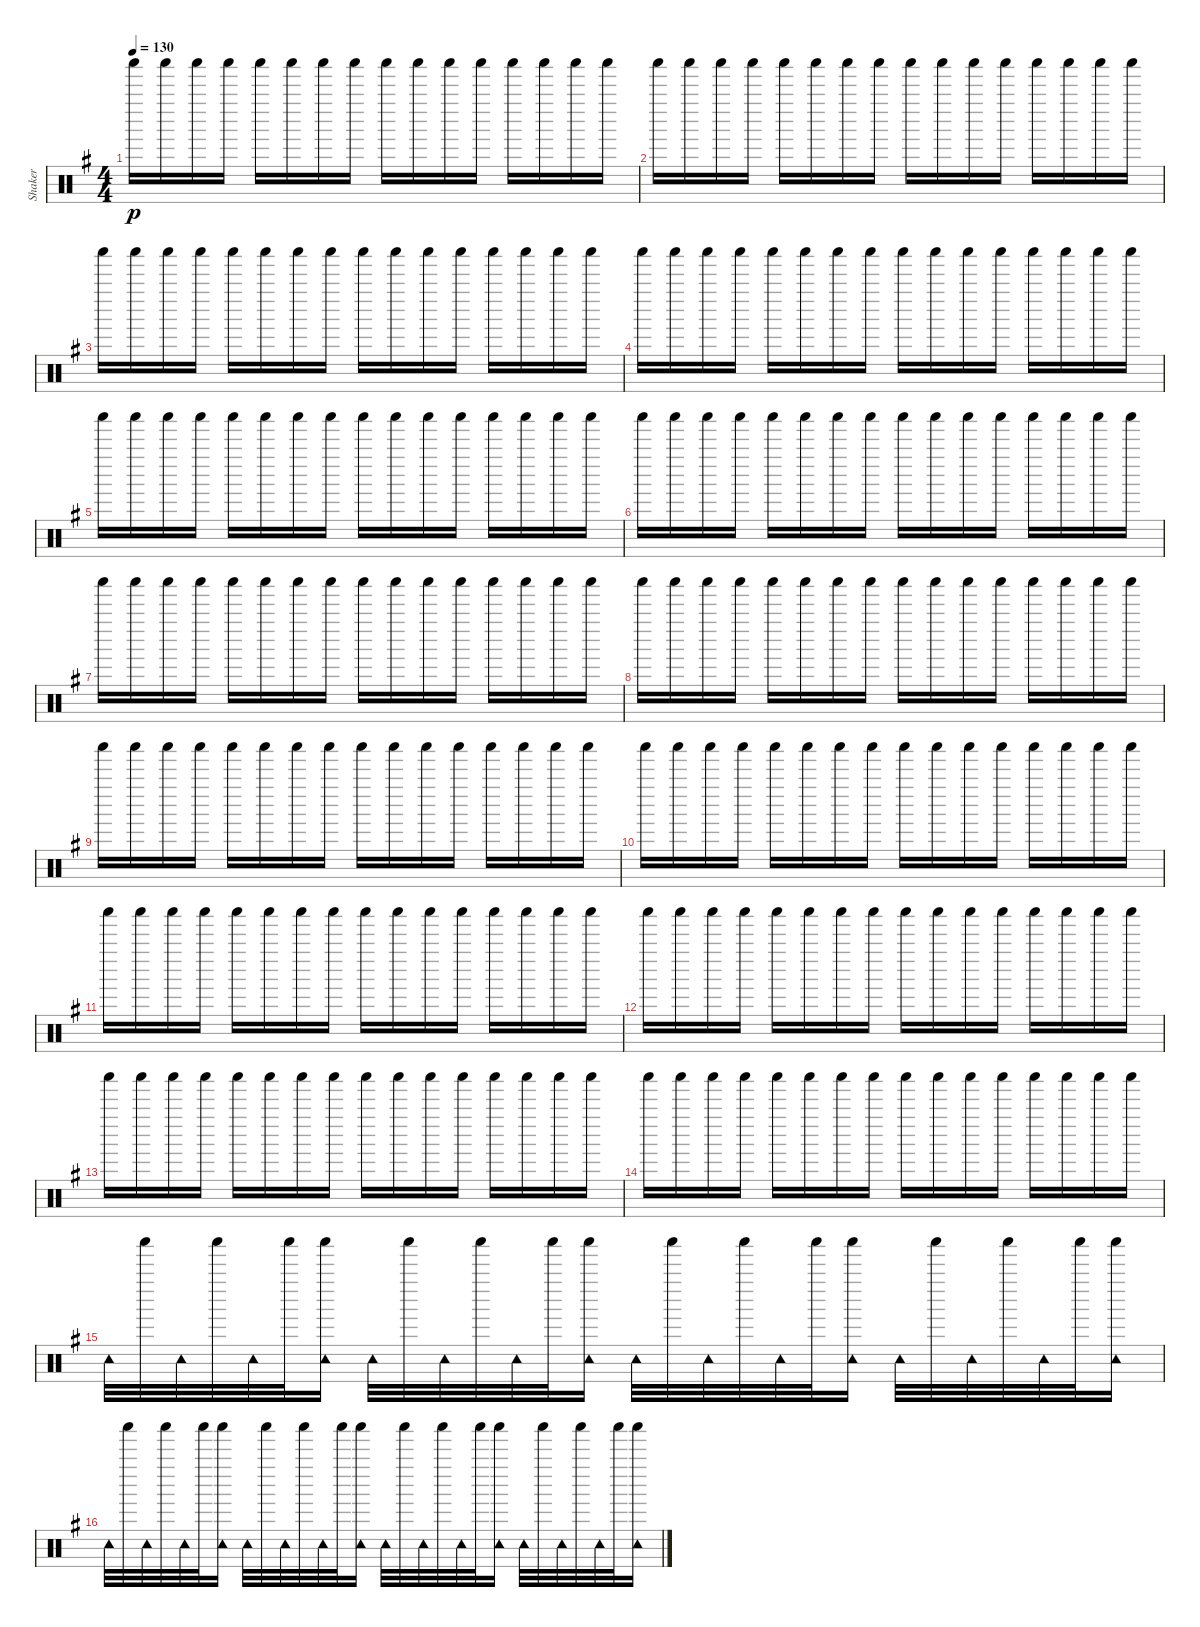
\track ("Shaker" "Shaker") {instrument percussion}
\staff {score}
\articulation defaults
\ts (4 4)
\tempo 130
\clef neutral
\ks g "Shaker (hit)".16{dy p} "Shaker (hit)".16 "Shaker (hit)".16 "Shaker (hit)".16 "Shaker (hit)".16 "Shaker (hit)".16 "Shaker (hit)".16 "Shaker (hit)".16 "Shaker (hit)".16 "Shaker (hit)".16 "Shaker (hit)".16 "Shaker (hit)".16 "Shaker (hit)".16 "Shaker (hit)".16 "Shaker (hit)".16 "Shaker (hit)".16
|
"Shaker (hit)".16 "Shaker (hit)".16 "Shaker (hit)".16 "Shaker (hit)".16 "Shaker (hit)".16 "Shaker (hit)".16 "Shaker (hit)".16 "Shaker (hit)".16 "Shaker (hit)".16 "Shaker (hit)".16 "Shaker (hit)".16 "Shaker (hit)".16 "Shaker (hit)".16 "Shaker (hit)".16 "Shaker (hit)".16 "Shaker (hit)".16 |
"Shaker (hit)".16 "Shaker (hit)".16 "Shaker (hit)".16 "Shaker (hit)".16 "Shaker (hit)".16 "Shaker (hit)".16 "Shaker (hit)".16 "Shaker (hit)".16 "Shaker (hit)".16 "Shaker (hit)".16 "Shaker (hit)".16 "Shaker (hit)".16 "Shaker (hit)".16 "Shaker (hit)".16 "Shaker (hit)".16 "Shaker (hit)".16 |
"Shaker (hit)".16 "Shaker (hit)".16 "Shaker (hit)".16 "Shaker (hit)".16 "Shaker (hit)".16 "Shaker (hit)".16 "Shaker (hit)".16 "Shaker (hit)".16 "Shaker (hit)".16 "Shaker (hit)".16 "Shaker (hit)".16 "Shaker (hit)".16 "Shaker (hit)".16 "Shaker (hit)".16 "Shaker (hit)".16 "Shaker (hit)".16 |
"Shaker (hit)".16 "Shaker (hit)".16 "Shaker (hit)".16 "Shaker (hit)".16 "Shaker (hit)".16 "Shaker (hit)".16 "Shaker (hit)".16 "Shaker (hit)".16 "Shaker (hit)".16 "Shaker (hit)".16 "Shaker (hit)".16 "Shaker (hit)".16 "Shaker (hit)".16 "Shaker (hit)".16 "Shaker (hit)".16 "Shaker (hit)".16 |
"Shaker (hit)".16 "Shaker (hit)".16 "Shaker (hit)".16 "Shaker (hit)".16 "Shaker (hit)".16 "Shaker (hit)".16 "Shaker (hit)".16 "Shaker (hit)".16 "Shaker (hit)".16 "Shaker (hit)".16 "Shaker (hit)".16 "Shaker (hit)".16 "Shaker (hit)".16 "Shaker (hit)".16 "Shaker (hit)".16 "Shaker (hit)".16 |
"Shaker (hit)".16 "Shaker (hit)".16 "Shaker (hit)".16 "Shaker (hit)".16 "Shaker (hit)".16 "Shaker (hit)".16 "Shaker (hit)".16 "Shaker (hit)".16 "Shaker (hit)".16 "Shaker (hit)".16 "Shaker (hit)".16 "Shaker (hit)".16 "Shaker (hit)".16 "Shaker (hit)".16 "Shaker (hit)".16 "Shaker (hit)".16 |
"Shaker (hit)".16 "Shaker (hit)".16 "Shaker (hit)".16 "Shaker (hit)".16 "Shaker (hit)".16 "Shaker (hit)".16 "Shaker (hit)".16 "Shaker (hit)".16 "Shaker (hit)".16 "Shaker (hit)".16 "Shaker (hit)".16 "Shaker (hit)".16 "Shaker (hit)".16 "Shaker (hit)".16 "Shaker (hit)".16 "Shaker (hit)".16 |
"Shaker (hit)".16 "Shaker (hit)".16 "Shaker (hit)".16 "Shaker (hit)".16 "Shaker (hit)".16 "Shaker (hit)".16 "Shaker (hit)".16 "Shaker (hit)".16 "Shaker (hit)".16 "Shaker (hit)".16 "Shaker (hit)".16 "Shaker (hit)".16 "Shaker (hit)".16 "Shaker (hit)".16 "Shaker (hit)".16 "Shaker (hit)".16 |
"Shaker (hit)".16 "Shaker (hit)".16 "Shaker (hit)".16 "Shaker (hit)".16 "Shaker (hit)".16 "Shaker (hit)".16 "Shaker (hit)".16 "Shaker (hit)".16 "Shaker (hit)".16 "Shaker (hit)".16 "Shaker (hit)".16 "Shaker (hit)".16 "Shaker (hit)".16 "Shaker (hit)".16 "Shaker (hit)".16 "Shaker (hit)".16 |
"Shaker (hit)".16 "Shaker (hit)".16 "Shaker (hit)".16 "Shaker (hit)".16 "Shaker (hit)".16 "Shaker (hit)".16 "Shaker (hit)".16 "Shaker (hit)".16 "Shaker (hit)".16 "Shaker (hit)".16 "Shaker (hit)".16 "Shaker (hit)".16 "Shaker (hit)".16 "Shaker (hit)".16 "Shaker (hit)".16 "Shaker (hit)".16 |
"Shaker (hit)".16 "Shaker (hit)".16 "Shaker (hit)".16 "Shaker (hit)".16 "Shaker (hit)".16 "Shaker (hit)".16 "Shaker (hit)".16 "Shaker (hit)".16 "Shaker (hit)".16 "Shaker (hit)".16 "Shaker (hit)".16 "Shaker (hit)".16 "Shaker (hit)".16 "Shaker (hit)".16 "Shaker (hit)".16 "Shaker (hit)".16 |
"Shaker (hit)".16 "Shaker (hit)".16 "Shaker (hit)".16 "Shaker (hit)".16 "Shaker (hit)".16 "Shaker (hit)".16 "Shaker (hit)".16 "Shaker (hit)".16 "Shaker (hit)".16 "Shaker (hit)".16 "Shaker (hit)".16 "Shaker (hit)".16 "Shaker (hit)".16 "Shaker (hit)".16 "Shaker (hit)".16 "Shaker (hit)".16 |
"Shaker (hit)".16 "Shaker (hit)".16 "Shaker (hit)".16 "Shaker (hit)".16 "Shaker (hit)".16 "Shaker (hit)".16 "Shaker (hit)".16 "Shaker (hit)".16 "Shaker (hit)".16 "Shaker (hit)".16 "Shaker (hit)".16 "Shaker (hit)".16 "Shaker (hit)".16 "Shaker (hit)".16 "Shaker (hit)".16 "Shaker (hit)".16 |
"Tambourine (hit)".32 "Shaker (hit)".32 "Tambourine (hit)".32 "Shaker (hit)".32 "Tambourine (hit)".32 "Shaker (hit)".32 ("Tambourine (hit)" "Shaker (hit)").16 "Tambourine (hit)".32 "Shaker (hit)".32 "Tambourine (hit)".32 "Shaker (hit)".32 "Tambourine (hit)".32 "Shaker (hit)".32 ("Tambourine (hit)" "Shaker (hit)").16 "Tambourine (hit)".32 "Shaker (hit)".32 "Tambourine (hit)".32 "Shaker (hit)".32 "Tambourine (hit)".32 "Shaker (hit)".32 ("Tambourine (hit)" "Shaker (hit)").16 "Tambourine (hit)".32 "Shaker (hit)".32 "Tambourine (hit)".32 "Shaker (hit)".32 "Tambourine (hit)".32 "Shaker (hit)".32 ("Tambourine (hit)" "Shaker (hit)").16 |
"Tambourine (hit)".32 "Shaker (hit)".32 "Tambourine (hit)".32 "Shaker (hit)".32 "Tambourine (hit)".32 "Shaker (hit)".32 ("Tambourine (hit)" "Shaker (hit)").16 "Tambourine (hit)".32 "Shaker (hit)".32 "Tambourine (hit)".32 "Shaker (hit)".32 "Tambourine (hit)".32 "Shaker (hit)".32 ("Tambourine (hit)" "Shaker (hit)").16 "Tambourine (hit)".32 "Shaker (hit)".32 "Tambourine (hit)".32 "Shaker (hit)".32 "Tambourine (hit)".32 "Shaker (hit)".32 ("Tambourine (hit)" "Shaker (hit)").16 "Tambourine (hit)".32 "Shaker (hit)".32 "Tambourine (hit)".32 "Shaker (hit)".32 "Tambourine (hit)".32 "Shaker (hit)".32 ("Tambourine (hit)" "Shaker (hit)").16
